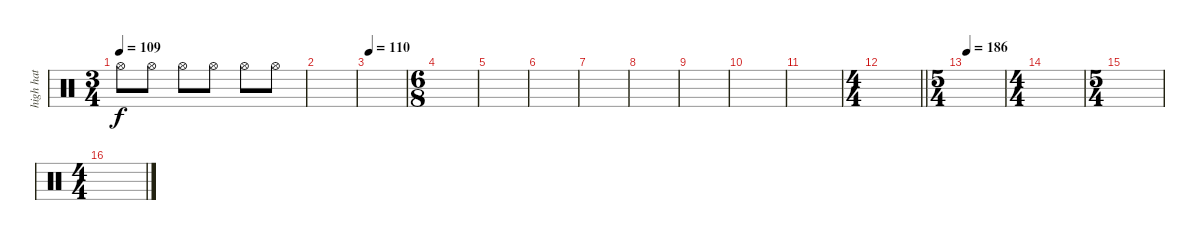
\track ("high hat" "high hat") {instrument percussion}
\staff {score}
\articulation defaults
\ts (3 4)
\tempo 109
\clef neutral
\ks c "Hi-Hat (open)".8{dy f} "Hi-Hat (open)".8 "Hi-Hat (open)".8 "Hi-Hat (open)".8 "Hi-Hat (open)".8 "Hi-Hat (open)".8
|
|
\tempo 110
|
\ts (6 8)
|
|
|
|
|
|
|
|
\ts (4 4)
\barLineRight lightlight
|
\ts (5 4)
\tempo 186
|
\ts (4 4)
|
\ts (5 4)
|
\ts (4 4)
